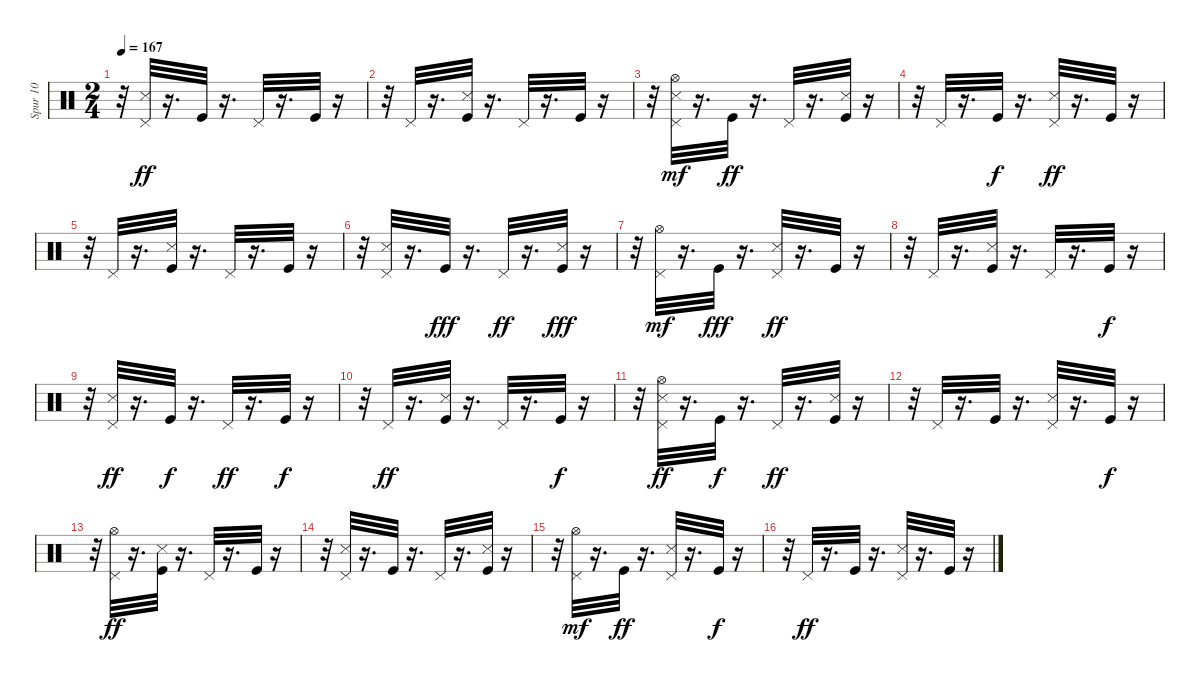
\track ("Spur 10" "Spur 10") {instrument percussion}
\staff {score}
\articulation defaults
\ts (2 4)
\tempo 167
\clef neutral
\ks c
r.32{dy ff} ("Pedal Hi-Hat (hit)" "Snare (side stick) 3").32 r.16{d} "Kick (hit)".32 r.16{d} "Pedal Hi-Hat (hit)".32 r.16{d} "Kick (hit)".32 r.16 |
r.32 "Pedal Hi-Hat (hit)".32 r.16{d} ("Snare (side stick) 3" "Kick (hit)").32 r.16{d} "Pedal Hi-Hat (hit)".32 r.16{d} "Kick (hit)".32 r.16 |
r.32 ("Snare (side stick) 3" "Pedal Hi-Hat (hit)" "Hi-Hat (open)").32{dy mf} r.16{d} "Kick (hit)".32{dy ff} r.16{d} "Pedal Hi-Hat (hit)".32 r.16{d} ("Snare (side stick) 3" "Kick (hit)").32 r.16 |
r.32 "Pedal Hi-Hat (hit)".32 r.16{d} "Kick (hit)".32{dy f} r.16{d} ("Pedal Hi-Hat (hit)" "Snare (side stick) 3").32{dy ff} r.16{d} "Kick (hit)".32 r.16 |
r.32 "Pedal Hi-Hat (hit)".32 r.16{d} ("Snare (side stick) 3" "Kick (hit)").32 r.16{d} "Pedal Hi-Hat (hit)".32 r.16{d} "Kick (hit)".32 r.16 |
r.32 ("Pedal Hi-Hat (hit)" "Snare (side stick) 3").32 r.16{d} "Kick (hit)".32{dy fff} r.16{d} "Pedal Hi-Hat (hit)".32{dy ff} r.16{d} ("Snare (side stick) 3" "Kick (hit)").32{dy fff} r.16 |
r.32 ("Pedal Hi-Hat (hit)" "Hi-Hat (open)").32{dy mf} r.16{d} "Kick (hit)".32{dy fff} r.16{d} ("Pedal Hi-Hat (hit)" "Snare (side stick) 3").32{dy ff} r.16{d} "Kick (hit)".32 r.16 |
r.32 "Pedal Hi-Hat (hit)".32 r.16{d} ("Snare (side stick) 3" "Kick (hit)").32 r.16{d} "Pedal Hi-Hat (hit)".32 r.16{d} "Kick (hit)".32{dy f} r.16 |
r.32 ("Pedal Hi-Hat (hit)" "Snare (side stick) 3").32{dy ff} r.16{d} "Kick (hit)".32{dy f} r.16{d} "Pedal Hi-Hat (hit)".32{dy ff} r.16{d} "Kick (hit)".32{dy f} r.16 |
r.32 "Pedal Hi-Hat (hit)".32{dy ff} r.16{d} ("Snare (side stick) 3" "Kick (hit)").32 r.16{d} "Pedal Hi-Hat (hit)".32 r.16{d} "Kick (hit)".32{dy f} r.16 |
r.32 ("Hi-Hat (open)" "Pedal Hi-Hat (hit)" "Snare (side stick) 3").32{dy ff} r.16{d} "Kick (hit)".32{dy f} r.16{d} "Pedal Hi-Hat (hit)".32{dy ff} r.16{d} ("Snare (side stick) 3" "Kick (hit)").32 r.16 |
r.32 "Pedal Hi-Hat (hit)".32 r.16{d} "Kick (hit)".32 r.16{d} ("Snare (side stick) 3" "Pedal Hi-Hat (hit)").32 r.16{d} "Kick (hit)".32{dy f} r.16 |
r.32 ("Hi-Hat (open)" "Pedal Hi-Hat (hit)").32{dy ff} r.16{d} ("Snare (side stick) 3" "Kick (hit)").32 r.16{d} "Pedal Hi-Hat (hit)".32 r.16{d} "Kick (hit)".32 r.16 |
r.32 ("Snare (side stick) 3" "Pedal Hi-Hat (hit)").32 r.16{d} "Kick (hit)".32 r.16{d} "Pedal Hi-Hat (hit)".32 r.16{d} ("Kick (hit)" "Snare (side stick) 3").32 r.16 |
r.32 ("Pedal Hi-Hat (hit)" "Hi-Hat (open)").32{dy mf} r.16{d} "Kick (hit)".32{dy ff} r.16{d} ("Snare (side stick) 3" "Pedal Hi-Hat (hit)").32 r.16{d} "Kick (hit)".32{dy f} r.16 |
r.32 "Pedal Hi-Hat (hit)".32{dy ff} r.16{d} "Kick (hit)".32 r.16{d} ("Snare (side stick) 3" "Pedal Hi-Hat (hit)").32 r.16{d} "Kick (hit)".32 r.16
